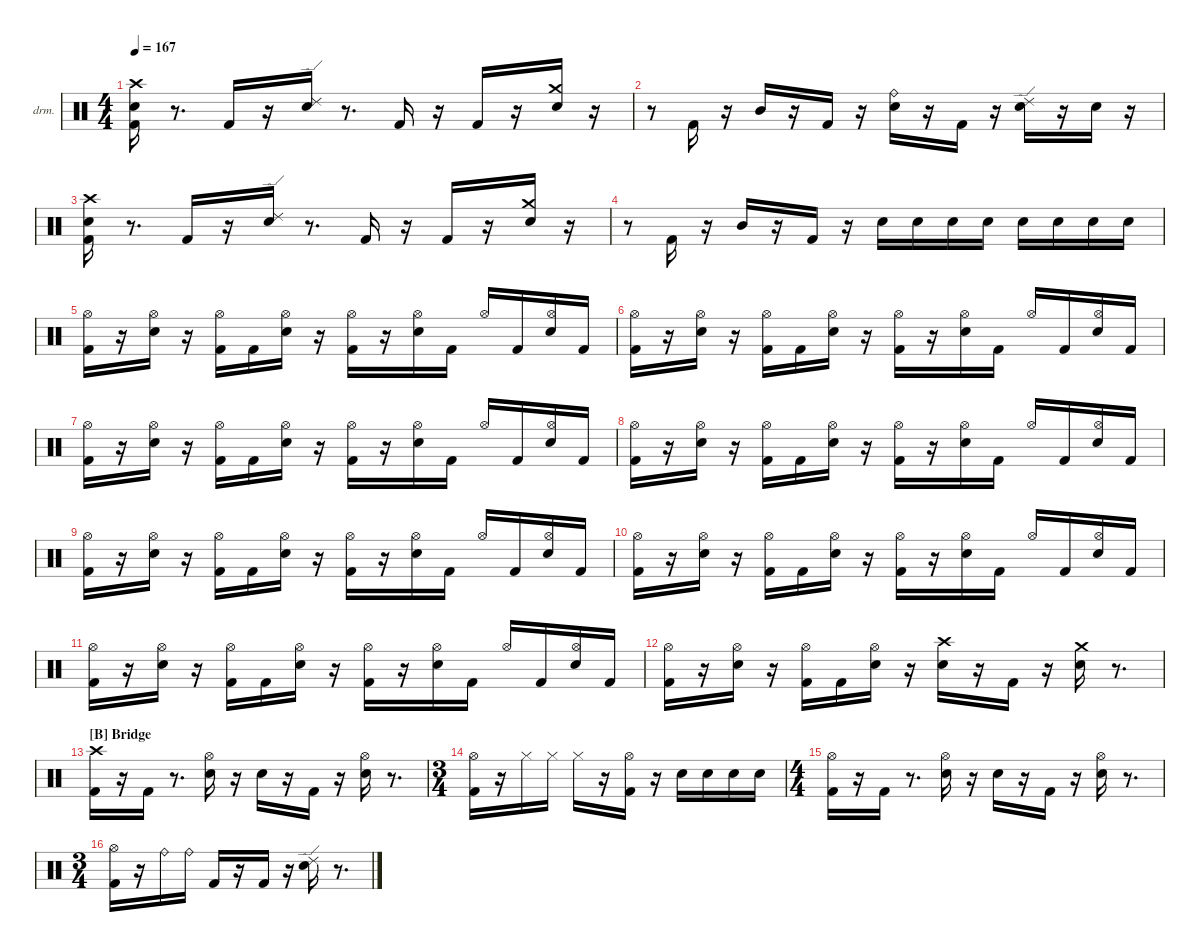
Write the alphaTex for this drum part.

\hideDynamics
\bracketExtendMode nobrackets
\firstSystemTrackNameOrientation horizontal
\otherSystemsTrackNameOrientation horizontal
\track ("Drums" "drm.") {instrument percussion}
\staff {score}
\articulation defaults
\ts (4 4)
\tempo 167
\clef neutral
\ks aminor
("Kick (hit) 2" "Snare (hit) 2" "Crash high (hit)"{acc #}).16{dy ff beam Down} r.8{d beam Down} "Kick (hit) 2".16{beam Up} r.16{beam Up} ("Ride (edge) 2" "Snare (hit) 2").16{beam Down} r.8{d beam Down} "Kick (hit) 2".16{dy mf beam Up} r.16{beam Up} "Kick (hit) 2".16{dy ff beam Up} r.16{beam Up} ("Snare (hit) 2" "Crash medium (hit)").16{beam Down} r.16{beam Down} |
r.8{beam Down} "Kick (hit) 2".16{beam Up} r.16{beam Up} "Mid Tom (hit)".16{beam Up} r.16{beam Up} "Kick (hit) 2".16{beam Up} r.16{beam Up} ("Ride (bell)" "Snare (hit) 2").16{dy fff beam Down} r.16{beam Down} "Kick (hit) 2".16{dy ff beam Up} r.16{beam Up} ("Snare (hit) 2" "Ride (edge) 2").16{dy f beam Down} r.16{beam Down} "Snare (hit) 2".16{dy mf beam Down} r.16{beam Down} |
("Snare (hit) 2" "Kick (hit) 2" "Crash high (hit)"{acc #}).16{dy ff beam Down} r.8{d beam Down} "Kick (hit) 2".16{beam Up} r.16{beam Up} ("Snare (hit) 2" "Ride (edge) 2").16{beam Down} r.8{d beam Down} "Kick (hit) 2".16{dy mf beam Up} r.16{beam Up} "Kick (hit) 2".16{dy ff beam Up} r.16{beam Up} ("Crash medium (hit)" "Snare (hit) 2").16{beam Down} r.16{beam Down} |
r.8{beam Down} "Kick (hit) 2".16{beam Up} r.16{beam Up} "Mid Tom (hit)".16{beam Up} r.16{beam Up} "Kick (hit) 2".16{beam Up} r.16{beam Up} "Snare (hit) 2".16{dy f beam Down} "Snare (hit) 2".16{dy mf beam Down} "Snare (hit) 2".16{dy ff beam Down} "Snare (hit) 2".16{dy mf beam Down} "Snare (hit) 2".16{dy ff beam Down} "Snare (hit) 2".16{dy f beam Down} "Snare (hit) 2".16{dy fff beam Down} "Snare (hit) 2".16{beam Down} |
("Kick (hit) 2" "Hi-Hat (open)"{acc #}).16{beam Down} r.16{beam Down} ("Snare (hit) 2" "Hi-Hat (open)"{acc #}).16{dy ff beam Down} r.16{beam Down} ("Kick (hit) 2" "Hi-Hat (open)"{acc #}).16{dy f beam Down} "Kick (hit) 2".16{dy ff beam Down} ("Snare (hit) 2" "Hi-Hat (open)"{acc #}).16{beam Down} r.16{beam Down} ("Hi-Hat (open)"{acc #} "Kick (hit) 2").16{beam Down} r.16{beam Down} ("Hi-Hat (open)"{acc #} "Snare (hit) 2").16{dy mf beam Down} "Kick (hit) 2".16{dy ff beam Down} "Hi-Hat (open)"{acc #}.16{beam Up} "Kick (hit) 2".16{beam Up} ("Hi-Hat (open)"{acc #} "Snare (hit) 2").16{dy mf beam Up} "Kick (hit) 2".16{beam Up} |
("Kick (hit) 2" "Hi-Hat (open)"{acc #}).16{dy fff beam Down} r.16{beam Down} ("Snare (hit) 2" "Hi-Hat (open)"{acc #}).16{dy mf beam Down} r.16{beam Down} ("Hi-Hat (open)"{acc #} "Kick (hit) 2").16{dy ff beam Down} "Kick (hit) 2".16{beam Down} ("Snare (hit) 2" "Hi-Hat (open)"{acc #}).16{beam Down} r.16{beam Down} ("Hi-Hat (open)"{acc #} "Kick (hit) 2").16{beam Down} r.16{beam Down} ("Snare (hit) 2" "Hi-Hat (open)"{acc #}).16{beam Down} "Kick (hit) 2".16{beam Down} "Hi-Hat (open)"{acc #}.16{beam Up} "Kick (hit) 2".16{beam Up} ("Snare (hit) 2" "Hi-Hat (open)"{acc #}).16{beam Up} "Kick (hit) 2".16{beam Up} |
("Kick (hit) 2" "Hi-Hat (open)"{acc #}).16{dy fff beam Down} r.16{beam Down} ("Snare (hit) 2" "Hi-Hat (open)"{acc #}).16{dy ff beam Down} r.16{beam Down} ("Kick (hit) 2" "Hi-Hat (open)"{acc #}).16{dy f beam Down} "Kick (hit) 2".16{dy ff beam Down} ("Hi-Hat (open)"{acc #} "Snare (hit) 2").16{dy mf beam Down} r.16{beam Down} ("Hi-Hat (open)"{acc #} "Kick (hit) 2").16{dy ff beam Down} r.16{beam Down} ("Snare (hit) 2" "Hi-Hat (open)"{acc #}).16{dy mf beam Down} "Kick (hit) 2".16{dy ff beam Down} "Hi-Hat (open)"{acc #}.16{beam Up} "Kick (hit) 2".16{beam Up} ("Snare (hit) 2" "Hi-Hat (open)"{acc #}).16{beam Up} "Kick (hit) 2".16{dy mf beam Up} |
("Hi-Hat (open)"{acc #} "Kick (hit) 2").16{dy ff beam Down} r.16{beam Down} ("Snare (hit) 2" "Hi-Hat (open)"{acc #}).16{dy mf beam Down} r.16{beam Down} ("Kick (hit) 2" "Hi-Hat (open)"{acc #}).16{dy ff beam Down} "Kick (hit) 2".16{beam Down} ("Snare (hit) 2" "Hi-Hat (open)"{acc #}).16{beam Down} r.16{beam Down} ("Kick (hit) 2" "Hi-Hat (open)"{acc #}).16{beam Down} r.16{beam Down} ("Snare (hit) 2" "Hi-Hat (open)"{acc #}).16{beam Down} "Kick (hit) 2".16{beam Down} "Hi-Hat (open)"{acc #}.16{beam Up} "Kick (hit) 2".16{beam Up} ("Snare (hit) 2" "Hi-Hat (open)"{acc #}).16{beam Up} "Kick (hit) 2".16{beam Up} |
("Kick (hit) 2" "Hi-Hat (open)"{acc #}).16{dy fff beam Down} r.16{beam Down} ("Hi-Hat (open)"{acc #} "Snare (hit) 2").16{dy mf beam Down} r.16{beam Down} ("Hi-Hat (open)"{acc #} "Kick (hit) 2").16{dy ff beam Down} "Kick (hit) 2".16{beam Down} ("Snare (hit) 2" "Hi-Hat (open)"{acc #}).16{beam Down} r.16{beam Down} ("Kick (hit) 2" "Hi-Hat (open)"{acc #}).16{beam Down} r.16{beam Down} ("Snare (hit) 2" "Hi-Hat (open)"{acc #}).16{beam Down} "Kick (hit) 2".16{beam Down} "Hi-Hat (open)"{acc #}.16{beam Up} "Kick (hit) 2".16{beam Up} ("Snare (hit) 2" "Hi-Hat (open)"{acc #}).16{beam Up} "Kick (hit) 2".16{dy mf beam Up} |
("Hi-Hat (open)"{acc #} "Kick (hit) 2").16{dy ff beam Down} r.16{beam Down} ("Snare (hit) 2" "Hi-Hat (open)"{acc #}).16{beam Down} r.16{beam Down} ("Kick (hit) 2" "Hi-Hat (open)"{acc #}).16{beam Down} "Kick (hit) 2".16{beam Down} ("Hi-Hat (open)"{acc #} "Snare (hit) 2").16{dy mf beam Down} r.16{beam Down} ("Hi-Hat (open)"{acc #} "Kick (hit) 2").16{dy ff beam Down} r.16{beam Down} ("Snare (hit) 2" "Hi-Hat (open)"{acc #}).16{beam Down} "Kick (hit) 2".16{beam Down} "Hi-Hat (open)"{acc #}.16{beam Up} "Kick (hit) 2".16{beam Up} ("Snare (hit) 2" "Hi-Hat (open)"{acc #}).16{beam Up} "Kick (hit) 2".16{beam Up} |
("Hi-Hat (open)"{acc #} "Kick (hit) 2").16{dy fff beam Down} r.16{beam Down} ("Snare (hit) 2" "Hi-Hat (open)"{acc #}).16{dy ff beam Down} r.16{beam Down} ("Hi-Hat (open)"{acc #} "Kick (hit) 2").16{dy f beam Down} "Kick (hit) 2".16{dy ff beam Down} ("Snare (hit) 2" "Hi-Hat (open)"{acc #}).16{beam Down} r.16{beam Down} ("Kick (hit) 2" "Hi-Hat (open)"{acc #}).16{beam Down} r.16{beam Down} ("Snare (hit) 2" "Hi-Hat (open)"{acc #}).16{beam Down} "Kick (hit) 2".16{beam Down} "Hi-Hat (open)"{acc #}.16{beam Up} "Kick (hit) 2".16{beam Up} ("Snare (hit) 2" "Hi-Hat (open)"{acc #}).16{beam Up} "Kick (hit) 2".16{dy mf beam Up} |
("Kick (hit) 2" "Hi-Hat (open)"{acc #}).16{dy fff beam Down} r.16{beam Down} ("Snare (hit) 2" "Hi-Hat (open)"{acc #}).16{dy ff beam Down} r.16{beam Down} ("Kick (hit) 2" "Hi-Hat (open)"{acc #}).16{dy f beam Down} "Kick (hit) 2".16{dy fff beam Down} ("Hi-Hat (open)"{acc #} "Snare (hit) 2").16{dy mf beam Down} r.16{beam Down} ("Crash high (hit)"{acc #} "Snare (hit) 2").16{dy ff beam Down} r.16{beam Down} "Kick (hit) 2".16{dy f beam Up} r.16{beam Up} ("Snare (hit) 2" "Crash medium (hit)").16{beam Down} r.8{d beam Down} |
\section ("B" "Bridge")
("Kick (hit) 2" "Crash high (hit)"{acc #}).16{dy fff beam Down} r.16{beam Down} "Kick (hit) 2".16{dy f beam Up} r.8{d beam Up} ("Hi-Hat (open)"{acc #} "Snare (hit) 2").16{dy ff beam Down} r.16{beam Down} "Snare (hit) 2".16{dy p beam Down} r.16{beam Down} "Kick (hit) 2".16{dy ff beam Up} r.16{beam Up} ("Snare (hit) 2" "Hi-Hat (open)"{acc #}).16{beam Down} r.8{d beam Down} |
\ts (3 4)
("Hi-Hat (open)"{acc #} "Kick (hit) 2").16{beam Down} r.16{beam Down} "Hi-Hat (closed)"{acc #}.16{dy fff beam Down} "Hi-Hat (closed)"{acc #}.16{dy ff beam Down} "Hi-Hat (closed)"{acc #}.16{dy fff beam Down} r.16{beam Down} ("Hi-Hat (open)"{acc #} "Kick (hit) 2").16{dy ff beam Down} r.16{beam Down} "Snare (hit) 2".16{dy mp beam Down} "Snare (hit) 2".16{dy p beam Down} "Snare (hit) 2".16{dy mf beam Down} "Snare (hit) 2".16{dy pp beam Down} |
\ts (4 4)
("Hi-Hat (open)"{acc #} "Kick (hit) 2").16{dy fff beam Down} r.16{beam Down} "Kick (hit) 2".16{dy f beam Up} r.8{d beam Up} ("Snare (hit) 2" "Hi-Hat (open)"{acc #}).16{dy ff beam Down} r.16{beam Down} "Snare (hit) 2".16{dy p beam Down} r.16{beam Down} "Kick (hit) 2".16{dy ff beam Up} r.16{beam Up} ("Hi-Hat (open)"{acc #} "Snare (hit) 2").16{dy mf beam Down} r.8{d beam Down} |
\ts (3 4)
("Kick (hit) 2" "Hi-Hat (open)"{acc #}).16{dy ff beam Down} r.16{beam Down} "Ride (bell)".16{dy fff beam Down} "Ride (bell)".16{dy ff beam Down} "Kick (hit) 2".16{dy f beam Up} r.16{beam Up} "Kick (hit) 2".16{dy fff beam Up} r.16{beam Up} ("Snare (hit) 2" "Ride (edge) 2").16{dy ff beam Down} r.8{d beam Down}
